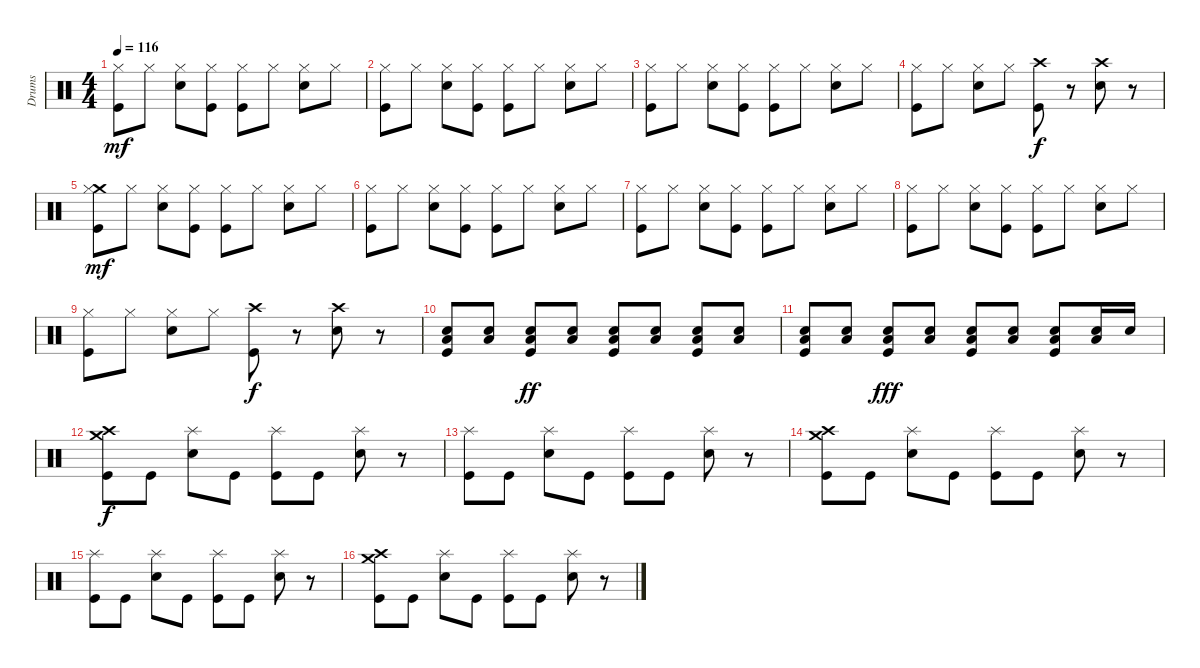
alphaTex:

\track ("Drums" "Drums") {instrument percussion}
\staff {score}
\articulation defaults
\ts (4 4)
\tempo 116
\clef neutral
\ks c
("Hi-Hat (closed)" "Kick (hit)").8{dy mf} "Hi-Hat (closed)".8 ("Hi-Hat (closed)" "Electric Snare (hit)").8 ("Hi-Hat (closed)" "Kick (hit)").8 ("Hi-Hat (closed)" "Kick (hit)").8 "Hi-Hat (closed)".8 ("Hi-Hat (closed)" "Electric Snare (hit)").8 "Hi-Hat (closed)".8 |
("Hi-Hat (closed)" "Kick (hit)").8 "Hi-Hat (closed)".8 ("Hi-Hat (closed)" "Electric Snare (hit)").8 ("Hi-Hat (closed)" "Kick (hit)").8 ("Hi-Hat (closed)" "Kick (hit)").8 "Hi-Hat (closed)".8 ("Hi-Hat (closed)" "Electric Snare (hit)").8 "Hi-Hat (closed)".8 |
("Hi-Hat (closed)" "Kick (hit)").8 "Hi-Hat (closed)".8 ("Hi-Hat (closed)" "Electric Snare (hit)").8 ("Hi-Hat (closed)" "Kick (hit)").8 ("Hi-Hat (closed)" "Kick (hit)").8 "Hi-Hat (closed)".8 ("Hi-Hat (closed)" "Electric Snare (hit)").8 "Hi-Hat (closed)".8 |
("Hi-Hat (closed)" "Kick (hit)").8 "Hi-Hat (closed)".8 ("Hi-Hat (closed)" "Electric Snare (hit)").8 "Hi-Hat (closed)".8 ("Kick (hit)" "Crash high (hit)").8{dy f} r.8 ("Electric Snare (hit)" "Crash high (hit)").8 r.8 |
("Crash medium (hit)" "Hi-Hat (closed)" "Kick (hit)").8{dy mf} "Hi-Hat (closed)".8 ("Hi-Hat (closed)" "Electric Snare (hit)").8 ("Hi-Hat (closed)" "Kick (hit)").8 ("Hi-Hat (closed)" "Kick (hit)").8 "Hi-Hat (closed)".8 ("Hi-Hat (closed)" "Electric Snare (hit)").8 "Hi-Hat (closed)".8 |
("Hi-Hat (closed)" "Kick (hit)").8 "Hi-Hat (closed)".8 ("Hi-Hat (closed)" "Electric Snare (hit)").8 ("Hi-Hat (closed)" "Kick (hit)").8 ("Hi-Hat (closed)" "Kick (hit)").8 "Hi-Hat (closed)".8 ("Hi-Hat (closed)" "Electric Snare (hit)").8 "Hi-Hat (closed)".8 |
("Hi-Hat (closed)" "Kick (hit)").8 "Hi-Hat (closed)".8 ("Hi-Hat (closed)" "Electric Snare (hit)").8 ("Hi-Hat (closed)" "Kick (hit)").8 ("Hi-Hat (closed)" "Kick (hit)").8 "Hi-Hat (closed)".8 ("Hi-Hat (closed)" "Electric Snare (hit)").8 "Hi-Hat (closed)".8 |
("Hi-Hat (closed)" "Kick (hit)").8 "Hi-Hat (closed)".8 ("Hi-Hat (closed)" "Electric Snare (hit)").8 ("Hi-Hat (closed)" "Kick (hit)").8 ("Hi-Hat (closed)" "Kick (hit)").8 "Hi-Hat (closed)".8 ("Hi-Hat (closed)" "Electric Snare (hit)").8 "Hi-Hat (closed)".8 |
("Hi-Hat (closed)" "Kick (hit)").8 "Hi-Hat (closed)".8 ("Hi-Hat (closed)" "Electric Snare (hit)").8 "Hi-Hat (closed)".8 ("Kick (hit)" "Crash high (hit)").8{dy f} r.8 ("Electric Snare (hit)" "Crash high (hit)").8 r.8 |
("Low Floor Tom (hit)" "Electric Snare (hit)" "Kick (hit)").8 ("Low Floor Tom (hit)" "Electric Snare (hit)").8 ("Low Floor Tom (hit)" "Electric Snare (hit)" "Kick (hit)").8{dy ff} ("Low Floor Tom (hit)" "Electric Snare (hit)").8 ("Low Floor Tom (hit)" "Electric Snare (hit)" "Kick (hit)").8 ("Low Floor Tom (hit)" "Electric Snare (hit)").8 ("Low Floor Tom (hit)" "Electric Snare (hit)" "Kick (hit)").8 ("Low Floor Tom (hit)" "Electric Snare (hit)").8 |
("Low Floor Tom (hit)" "Electric Snare (hit)" "Kick (hit)").8 ("Low Floor Tom (hit)" "Electric Snare (hit)").8 ("Low Floor Tom (hit)" "Electric Snare (hit)" "Kick (hit)").8{dy fff} ("Low Floor Tom (hit)" "Electric Snare (hit)").8 ("Low Floor Tom (hit)" "Electric Snare (hit)" "Kick (hit)").8 ("Low Floor Tom (hit)" "Electric Snare (hit)").8 ("Low Floor Tom (hit)" "Electric Snare (hit)" "Kick (hit)").8 ("Electric Snare (hit)" "Low Floor Tom (hit)").16 "Electric Snare (hit)".16 |
("Crash medium (hit)" "Crash high (hit)" "Kick (hit)").8{dy f} "Kick (hit)".8 ("Splash (hit)" "Electric Snare (hit)").8 "Kick (hit)".8 ("Splash (hit)" "Kick (hit)").8 "Kick (hit)".8 ("Splash (hit)" "Electric Snare (hit)").8 r.8 |
("Splash (hit)" "Kick (hit)").8 "Kick (hit)".8 ("Splash (hit)" "Electric Snare (hit)").8 "Kick (hit)".8 ("Splash (hit)" "Kick (hit)").8 "Kick (hit)".8 ("Splash (hit)" "Electric Snare (hit)").8 r.8 |
("Crash medium (hit)" "Crash high (hit)" "Kick (hit)").8 "Kick (hit)".8 ("Splash (hit)" "Electric Snare (hit)").8 "Kick (hit)".8 ("Splash (hit)" "Kick (hit)").8 "Kick (hit)".8 ("Splash (hit)" "Electric Snare (hit)").8 r.8 |
("Splash (hit)" "Kick (hit)").8 "Kick (hit)".8 ("Splash (hit)" "Electric Snare (hit)").8 "Kick (hit)".8 ("Splash (hit)" "Kick (hit)").8 "Kick (hit)".8 ("Splash (hit)" "Electric Snare (hit)").8 r.8 |
("Crash medium (hit)" "Crash high (hit)" "Kick (hit)").8 "Kick (hit)".8 ("Splash (hit)" "Electric Snare (hit)").8 "Kick (hit)".8 ("Splash (hit)" "Kick (hit)").8 "Kick (hit)".8 ("Splash (hit)" "Electric Snare (hit)").8 r.8
